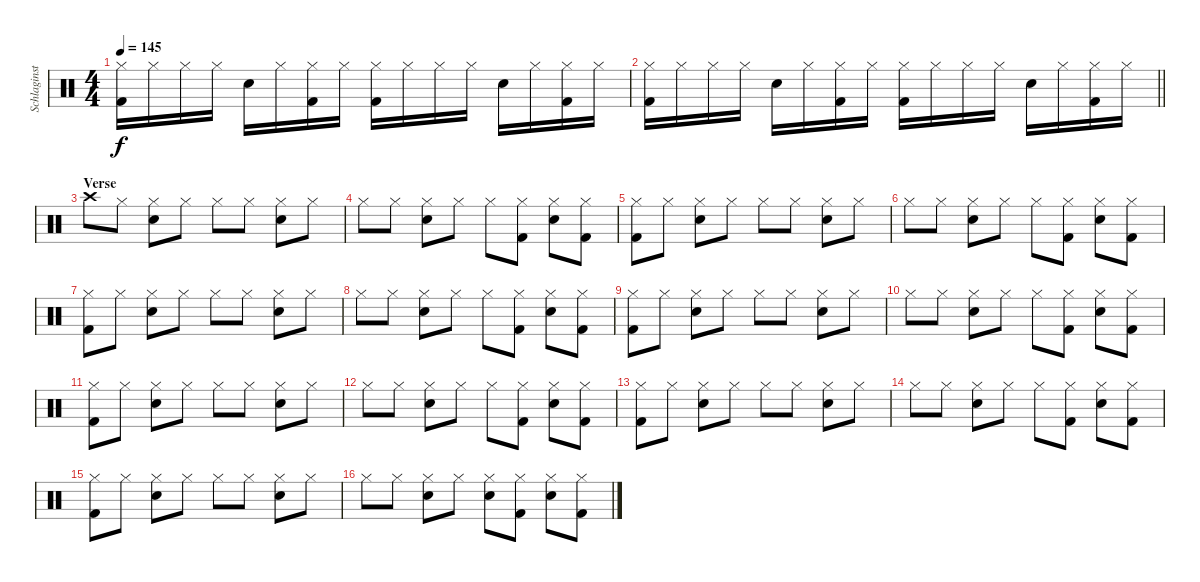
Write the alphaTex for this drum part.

\track ("Schlaginstrumente - Auswahl" "Schlaginst") {instrument percussion}
\staff {score}
\articulation defaults
\ts (4 4)
\tempo 145
\clef neutral
\ks c
("Hi-Hat (closed)" "Kick (hit) 2").16{dy f} "Hi-Hat (closed)".16 "Hi-Hat (closed)".16 "Hi-Hat (closed)".16 "Electric Snare (hit)".16 "Hi-Hat (closed)".16 ("Hi-Hat (closed)" "Kick (hit) 2").16 "Hi-Hat (closed)".16 ("Hi-Hat (closed)" "Kick (hit) 2").16 "Hi-Hat (closed)".16 "Hi-Hat (closed)".16 "Hi-Hat (closed)".16 "Electric Snare (hit)".16 "Hi-Hat (closed)".16 ("Hi-Hat (closed)" "Kick (hit) 2").16 "Hi-Hat (closed)".16 |
\barLineRight lightlight
("Hi-Hat (closed)" "Kick (hit) 2").16 "Hi-Hat (closed)".16 "Hi-Hat (closed)".16 "Hi-Hat (closed)".16 "Electric Snare (hit)".16 "Hi-Hat (closed)".16 ("Hi-Hat (closed)" "Kick (hit) 2").16 "Hi-Hat (closed)".16 ("Hi-Hat (closed)" "Kick (hit) 2").16 "Hi-Hat (closed)".16 "Hi-Hat (closed)".16 "Hi-Hat (closed)".16 "Electric Snare (hit)".16 "Hi-Hat (closed)".16 ("Hi-Hat (closed)" "Kick (hit) 2").16 "Hi-Hat (closed)".16 |
\section ("" "Verse")
"Crash high (hit)".8 "Hi-Hat (closed)".8 ("Hi-Hat (closed)" "Electric Snare (hit)").8 "Hi-Hat (closed)".8 "Hi-Hat (closed)".8 "Hi-Hat (closed)".8 ("Hi-Hat (closed)" "Electric Snare (hit)").8 "Hi-Hat (closed)".8 |
"Hi-Hat (closed)".8 "Hi-Hat (closed)".8 ("Hi-Hat (closed)" "Electric Snare (hit)").8 "Hi-Hat (closed)".8 "Hi-Hat (closed)".8 ("Hi-Hat (closed)" "Kick (hit) 2").8 ("Hi-Hat (closed)" "Electric Snare (hit)").8 ("Hi-Hat (closed)" "Kick (hit) 2").8 |
("Hi-Hat (closed)" "Kick (hit) 2").8 "Hi-Hat (closed)".8 ("Hi-Hat (closed)" "Electric Snare (hit)").8 "Hi-Hat (closed)".8 "Hi-Hat (closed)".8 "Hi-Hat (closed)".8 ("Hi-Hat (closed)" "Electric Snare (hit)").8 "Hi-Hat (closed)".8 |
"Hi-Hat (closed)".8 "Hi-Hat (closed)".8 ("Hi-Hat (closed)" "Electric Snare (hit)").8 "Hi-Hat (closed)".8 "Hi-Hat (closed)".8 ("Hi-Hat (closed)" "Kick (hit) 2").8 ("Hi-Hat (closed)" "Electric Snare (hit)").8 ("Hi-Hat (closed)" "Kick (hit) 2").8 |
("Hi-Hat (closed)" "Kick (hit) 2").8 "Hi-Hat (closed)".8 ("Hi-Hat (closed)" "Electric Snare (hit)").8 "Hi-Hat (closed)".8 "Hi-Hat (closed)".8 "Hi-Hat (closed)".8 ("Hi-Hat (closed)" "Electric Snare (hit)").8 "Hi-Hat (closed)".8 |
"Hi-Hat (closed)".8 "Hi-Hat (closed)".8 ("Hi-Hat (closed)" "Electric Snare (hit)").8 "Hi-Hat (closed)".8 "Hi-Hat (closed)".8 ("Hi-Hat (closed)" "Kick (hit) 2").8 ("Hi-Hat (closed)" "Electric Snare (hit)").8 ("Hi-Hat (closed)" "Kick (hit) 2").8 |
("Hi-Hat (closed)" "Kick (hit) 2").8 "Hi-Hat (closed)".8 ("Hi-Hat (closed)" "Electric Snare (hit)").8 "Hi-Hat (closed)".8 "Hi-Hat (closed)".8 "Hi-Hat (closed)".8 ("Hi-Hat (closed)" "Electric Snare (hit)").8 "Hi-Hat (closed)".8 |
"Hi-Hat (closed)".8 "Hi-Hat (closed)".8 ("Hi-Hat (closed)" "Electric Snare (hit)").8 "Hi-Hat (closed)".8 "Hi-Hat (closed)".8 ("Hi-Hat (closed)" "Kick (hit) 2").8 ("Hi-Hat (closed)" "Electric Snare (hit)").8 ("Hi-Hat (closed)" "Kick (hit) 2").8 |
("Hi-Hat (closed)" "Kick (hit) 2").8 "Hi-Hat (closed)".8 ("Hi-Hat (closed)" "Electric Snare (hit)").8 "Hi-Hat (closed)".8 "Hi-Hat (closed)".8 "Hi-Hat (closed)".8 ("Hi-Hat (closed)" "Electric Snare (hit)").8 "Hi-Hat (closed)".8 |
"Hi-Hat (closed)".8 "Hi-Hat (closed)".8 ("Hi-Hat (closed)" "Electric Snare (hit)").8 "Hi-Hat (closed)".8 "Hi-Hat (closed)".8 ("Hi-Hat (closed)" "Kick (hit) 2").8 ("Hi-Hat (closed)" "Electric Snare (hit)").8 ("Hi-Hat (closed)" "Kick (hit) 2").8 |
("Hi-Hat (closed)" "Kick (hit) 2").8 "Hi-Hat (closed)".8 ("Hi-Hat (closed)" "Electric Snare (hit)").8 "Hi-Hat (closed)".8 "Hi-Hat (closed)".8 "Hi-Hat (closed)".8 ("Hi-Hat (closed)" "Electric Snare (hit)").8 "Hi-Hat (closed)".8 |
"Hi-Hat (closed)".8 "Hi-Hat (closed)".8 ("Hi-Hat (closed)" "Electric Snare (hit)").8 "Hi-Hat (closed)".8 "Hi-Hat (closed)".8 ("Hi-Hat (closed)" "Kick (hit) 2").8 ("Hi-Hat (closed)" "Electric Snare (hit)").8 ("Hi-Hat (closed)" "Kick (hit) 2").8 |
("Hi-Hat (closed)" "Kick (hit) 2").8 "Hi-Hat (closed)".8 ("Hi-Hat (closed)" "Electric Snare (hit)").8 "Hi-Hat (closed)".8 "Hi-Hat (closed)".8 "Hi-Hat (closed)".8 ("Hi-Hat (closed)" "Electric Snare (hit)").8 "Hi-Hat (closed)".8 |
"Hi-Hat (closed)".8 "Hi-Hat (closed)".8 ("Hi-Hat (closed)" "Electric Snare (hit)").8 "Hi-Hat (closed)".8 ("Hi-Hat (closed)" "Electric Snare (hit)").8 ("Hi-Hat (closed)" "Kick (hit) 2").8 ("Hi-Hat (closed)" "Electric Snare (hit)").8 ("Hi-Hat (closed)" "Kick (hit) 2").8
